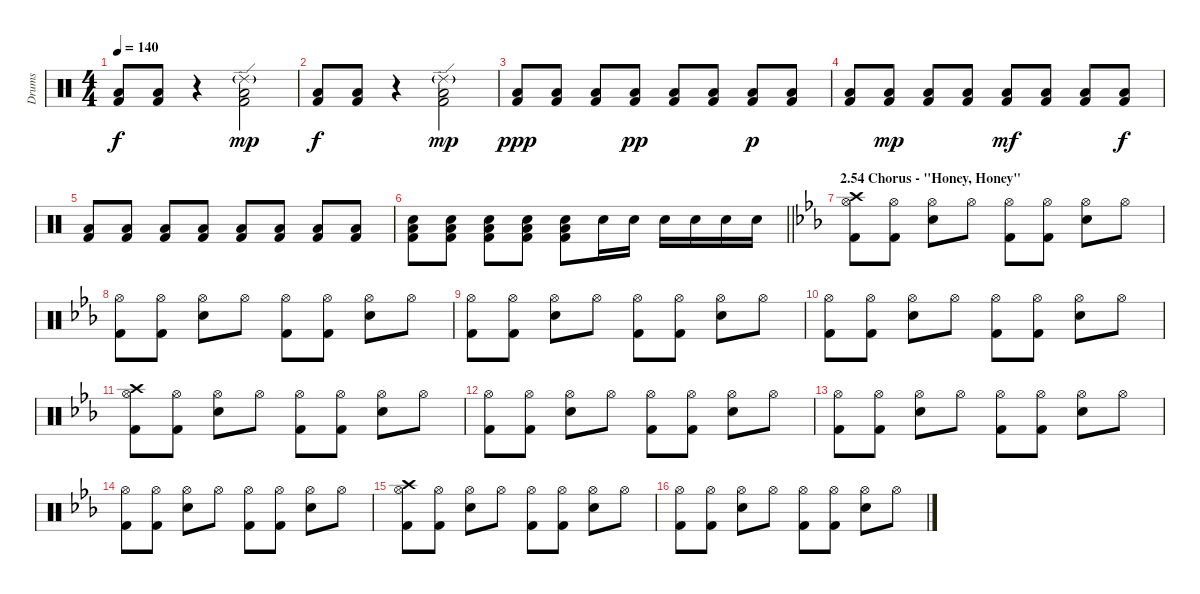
\track ("Drums" "Drums") {instrument percussion}
\staff {score}
\articulation defaults
\ts (4 4)
\tempo 140
\clef neutral
\ks aminor
("Low Floor Tom (hit)" "Kick (hit) 2").8{dy f} ("Low Floor Tom (hit)" "Kick (hit) 2").8 r.4 ("Ride (edge) 2"{g} "Low Floor Tom (hit)" "Kick (hit) 2").2{dy mp} |
("Low Floor Tom (hit)" "Kick (hit) 2").8{dy f} ("Low Floor Tom (hit)" "Kick (hit) 2").8 r.4 ("Ride (edge) 2"{g} "Low Floor Tom (hit)" "Kick (hit) 2").2{dy mp} |
("Low Floor Tom (hit)" "Kick (hit) 2").8{dy ppp} ("Low Floor Tom (hit)" "Kick (hit) 2").8 ("Low Floor Tom (hit)" "Kick (hit) 2").8 ("Low Floor Tom (hit)" "Kick (hit) 2").8{dy pp} ("Low Floor Tom (hit)" "Kick (hit) 2").8 ("Low Floor Tom (hit)" "Kick (hit) 2").8 ("Low Floor Tom (hit)" "Kick (hit) 2").8{dy p} ("Low Floor Tom (hit)" "Kick (hit) 2").8 |
("Low Floor Tom (hit)" "Kick (hit) 2").8 ("Low Floor Tom (hit)" "Kick (hit) 2").8{dy mp} ("Low Floor Tom (hit)" "Kick (hit) 2").8 ("Low Floor Tom (hit)" "Kick (hit) 2").8 ("Low Floor Tom (hit)" "Kick (hit) 2").8{dy mf} ("Low Floor Tom (hit)" "Kick (hit) 2").8 ("Low Floor Tom (hit)" "Kick (hit) 2").8 ("Low Floor Tom (hit)" "Kick (hit) 2").8{dy f} |
("Low Floor Tom (hit)" "Kick (hit) 2").8 ("Low Floor Tom (hit)" "Kick (hit) 2").8 ("Low Floor Tom (hit)" "Kick (hit) 2").8 ("Low Floor Tom (hit)" "Kick (hit) 2").8 ("Low Floor Tom (hit)" "Kick (hit) 2").8 ("Low Floor Tom (hit)" "Kick (hit) 2").8 ("Low Floor Tom (hit)" "Kick (hit) 2").8 ("Low Floor Tom (hit)" "Kick (hit) 2").8 |
\barLineRight lightlight
("Electric Snare (hit)" "Low Floor Tom (hit)" "Kick (hit) 2").8 ("Electric Snare (hit)" "Low Floor Tom (hit)" "Kick (hit) 2").8 ("Electric Snare (hit)" "Low Floor Tom (hit)" "Kick (hit) 2").8 ("Electric Snare (hit)" "Low Floor Tom (hit)" "Kick (hit) 2").8 ("Electric Snare (hit)" "Low Floor Tom (hit)" "Kick (hit) 2").8 "Electric Snare (hit)".16 "Electric Snare (hit)".16 "Electric Snare (hit)".16 "Electric Snare (hit)".16 "Electric Snare (hit)".16 "Electric Snare (hit)".16 |
\section ("" "2.54 Chorus - \"Honey, Honey\"")
\ks cminor
("Crash high (hit)" "Hi-Hat (open)" "Kick (hit) 2").8 ("Hi-Hat (open)" "Kick (hit) 2").8 ("Hi-Hat (open)" "Electric Snare (hit)").8 "Hi-Hat (open)".8 ("Hi-Hat (open)" "Kick (hit) 2").8 ("Hi-Hat (open)" "Kick (hit) 2").8 ("Hi-Hat (open)" "Electric Snare (hit)").8 "Hi-Hat (open)".8 |
("Hi-Hat (open)" "Kick (hit) 2").8 ("Hi-Hat (open)" "Kick (hit) 2").8 ("Hi-Hat (open)" "Electric Snare (hit)").8 "Hi-Hat (open)".8 ("Hi-Hat (open)" "Kick (hit) 2").8 ("Hi-Hat (open)" "Kick (hit) 2").8 ("Hi-Hat (open)" "Electric Snare (hit)").8 "Hi-Hat (open)".8 |
("Hi-Hat (open)" "Kick (hit) 2").8 ("Hi-Hat (open)" "Kick (hit) 2").8 ("Hi-Hat (open)" "Electric Snare (hit)").8 "Hi-Hat (open)".8 ("Hi-Hat (open)" "Kick (hit) 2").8 ("Hi-Hat (open)" "Kick (hit) 2").8 ("Hi-Hat (open)" "Electric Snare (hit)").8 "Hi-Hat (open)".8 |
("Hi-Hat (open)" "Kick (hit) 2").8 ("Hi-Hat (open)" "Kick (hit) 2").8 ("Hi-Hat (open)" "Electric Snare (hit)").8 "Hi-Hat (open)".8 ("Hi-Hat (open)" "Kick (hit) 2").8 ("Hi-Hat (open)" "Kick (hit) 2").8 ("Hi-Hat (open)" "Electric Snare (hit)").8 "Hi-Hat (open)".8 |
("Crash high (hit)" "Hi-Hat (open)" "Kick (hit) 2").8 ("Hi-Hat (open)" "Kick (hit) 2").8 ("Hi-Hat (open)" "Electric Snare (hit)").8 "Hi-Hat (open)".8 ("Hi-Hat (open)" "Kick (hit) 2").8 ("Hi-Hat (open)" "Kick (hit) 2").8 ("Hi-Hat (open)" "Electric Snare (hit)").8 "Hi-Hat (open)".8 |
("Hi-Hat (open)" "Kick (hit) 2").8 ("Hi-Hat (open)" "Kick (hit) 2").8 ("Hi-Hat (open)" "Electric Snare (hit)").8 "Hi-Hat (open)".8 ("Hi-Hat (open)" "Kick (hit) 2").8 ("Hi-Hat (open)" "Kick (hit) 2").8 ("Hi-Hat (open)" "Electric Snare (hit)").8 "Hi-Hat (open)".8 |
("Hi-Hat (open)" "Kick (hit) 2").8 ("Hi-Hat (open)" "Kick (hit) 2").8 ("Hi-Hat (open)" "Electric Snare (hit)").8 "Hi-Hat (open)".8 ("Hi-Hat (open)" "Kick (hit) 2").8 ("Hi-Hat (open)" "Kick (hit) 2").8 ("Hi-Hat (open)" "Electric Snare (hit)").8 "Hi-Hat (open)".8 |
("Hi-Hat (open)" "Kick (hit) 2").8 ("Hi-Hat (open)" "Kick (hit) 2").8 ("Hi-Hat (open)" "Electric Snare (hit)").8 "Hi-Hat (open)".8 ("Hi-Hat (open)" "Kick (hit) 2").8 ("Hi-Hat (open)" "Kick (hit) 2").8 ("Hi-Hat (open)" "Electric Snare (hit)").8 "Hi-Hat (open)".8 |
("Crash high (hit)" "Hi-Hat (open)" "Kick (hit) 2").8 ("Hi-Hat (open)" "Kick (hit) 2").8 ("Hi-Hat (open)" "Electric Snare (hit)").8 "Hi-Hat (open)".8 ("Hi-Hat (open)" "Kick (hit) 2").8 ("Hi-Hat (open)" "Kick (hit) 2").8 ("Hi-Hat (open)" "Electric Snare (hit)").8 "Hi-Hat (open)".8 |
("Hi-Hat (open)" "Kick (hit) 2").8 ("Hi-Hat (open)" "Kick (hit) 2").8 ("Hi-Hat (open)" "Electric Snare (hit)").8 "Hi-Hat (open)".8 ("Hi-Hat (open)" "Kick (hit) 2").8 ("Hi-Hat (open)" "Kick (hit) 2").8 ("Hi-Hat (open)" "Electric Snare (hit)").8 "Hi-Hat (open)".8
